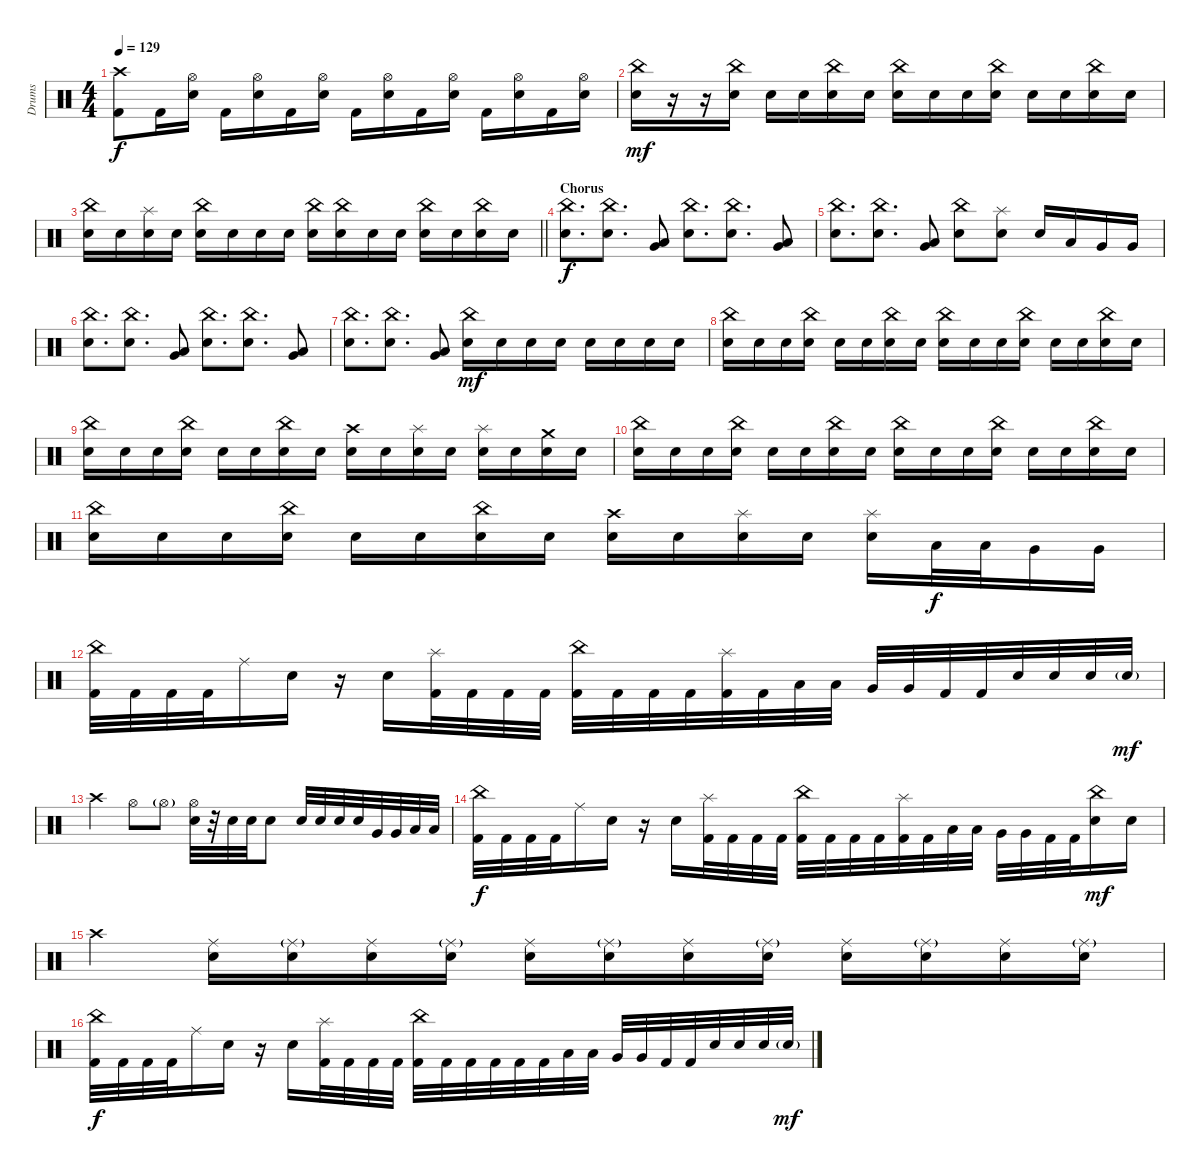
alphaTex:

\track ("Drums" "Drums") {instrument percussion}
\staff {score}
\articulation defaults
\ts (4 4)
\tempo 129
\clef neutral
\ks c
("Crash high (hit)" "Kick (hit) 2").8{dy f} "Kick (hit) 2".16 ("Hi-Hat (open)" "Snare (hit) 2").16 "Kick (hit) 2".16 ("Hi-Hat (open)" "Snare (hit) 2").16 "Kick (hit) 2".16 ("Hi-Hat (open)" "Snare (hit) 2").16 "Kick (hit) 2".16 ("Hi-Hat (open)" "Snare (hit) 2").16 "Kick (hit) 2".16 ("Hi-Hat (open)" "Snare (hit) 2").16 "Kick (hit) 2".16 ("Hi-Hat (open)" "Snare (hit) 2").16 "Kick (hit) 2".16 ("Hi-Hat (open)" "Snare (hit) 2").16 |
("China (hit)" "Snare (hit) 2").16{dy mf} r.16 r.16 ("China (hit)" "Snare (hit) 2").16 "Snare (hit) 2".16 "Snare (hit) 2".16 ("China (hit)" "Snare (hit) 2").16 "Snare (hit) 2".16 ("China (hit)" "Snare (hit) 2").16 "Snare (hit) 2".16 "Snare (hit) 2".16 ("China (hit)" "Snare (hit) 2").16 "Snare (hit) 2".16 "Snare (hit) 2".16 ("China (hit)" "Snare (hit) 2").16 "Snare (hit) 2".16 |
\barLineRight lightlight
("China (hit)" "Snare (hit) 2").16 "Snare (hit) 2".16 ("Splash (hit)" "Snare (hit) 2").16 "Snare (hit) 2".16 ("China (hit)" "Snare (hit) 2").16 "Snare (hit) 2".16 "Snare (hit) 2".16 "Snare (hit) 2".16 ("China (hit)" "Snare (hit) 2").16 ("China (hit)" "Snare (hit) 2").16 "Snare (hit) 2".16 "Snare (hit) 2".16 ("China (hit)" "Snare (hit) 2").16 "Snare (hit) 2".16 ("China (hit)" "Snare (hit) 2").16 "Snare (hit) 2".16 |
\section ("" "Chorus")
("China (hit)" "Snare (hit) 2").8{d dy f} ("China (hit)" "Snare (hit) 2").8{d} ("Very Low Tom (hit)" "Low Floor Tom (hit)").8 ("China (hit)" "Snare (hit) 2").8{d} ("China (hit)" "Snare (hit) 2").8{d} ("Very Low Tom (hit)" "Low Floor Tom (hit)").8 |
("China (hit)" "Snare (hit) 2").8{d} ("China (hit)" "Snare (hit) 2").8{d} ("Very Low Tom (hit)" "Low Floor Tom (hit)").8 ("China (hit)" "Snare (hit) 2").8 ("Splash (hit)" "Snare (hit) 2").8 "Snare (hit) 2".16 "Low Tom (hit)".16 "Very Low Tom (hit)".16 "Very Low Tom (hit)".16 |
("China (hit)" "Snare (hit) 2").8{d} ("China (hit)" "Snare (hit) 2").8{d} ("Very Low Tom (hit)" "Low Floor Tom (hit)").8 ("China (hit)" "Snare (hit) 2").8{d} ("China (hit)" "Snare (hit) 2").8{d} ("Very Low Tom (hit)" "Low Floor Tom (hit)").8 |
("China (hit)" "Snare (hit) 2").8{d} ("China (hit)" "Snare (hit) 2").8{d} ("Very Low Tom (hit)" "Low Floor Tom (hit)").8 ("China (hit)" "Snare (hit) 2").16{dy mf} "Snare (hit) 2".16 "Snare (hit) 2".16 "Snare (hit) 2".16 "Snare (hit) 2".16 "Snare (hit) 2".16 "Snare (hit) 2".16 "Snare (hit) 2".16 |
("China (hit)" "Snare (hit) 2").16 "Snare (hit) 2".16 "Snare (hit) 2".16 ("China (hit)" "Snare (hit) 2").16 "Snare (hit) 2".16 "Snare (hit) 2".16 ("China (hit)" "Snare (hit) 2").16 "Snare (hit) 2".16 ("China (hit)" "Snare (hit) 2").16 "Snare (hit) 2".16 "Snare (hit) 2".16 ("China (hit)" "Snare (hit) 2").16 "Snare (hit) 2".16 "Snare (hit) 2".16 ("China (hit)" "Snare (hit) 2").16 "Snare (hit) 2".16 |
("China (hit)" "Snare (hit) 2").16 "Snare (hit) 2".16 "Snare (hit) 2".16 ("China (hit)" "Snare (hit) 2").16 "Snare (hit) 2".16 "Snare (hit) 2".16 ("China (hit)" "Snare (hit) 2").16 "Snare (hit) 2".16 ("Crash high (hit)" "Snare (hit) 2").16 "Snare (hit) 2".16 ("Splash (hit)" "Snare (hit) 2").16 "Snare (hit) 2".16 ("Splash (hit)" "Snare (hit) 2").16 "Snare (hit) 2".16 ("Crash medium (hit)" "Snare (hit) 2").16 "Snare (hit) 2".16 |
("China (hit)" "Snare (hit) 2").16 "Snare (hit) 2".16 "Snare (hit) 2".16 ("China (hit)" "Snare (hit) 2").16 "Snare (hit) 2".16 "Snare (hit) 2".16 ("China (hit)" "Snare (hit) 2").16 "Snare (hit) 2".16 ("China (hit)" "Snare (hit) 2").16 "Snare (hit) 2".16 "Snare (hit) 2".16 ("China (hit)" "Snare (hit) 2").16 "Snare (hit) 2".16 "Snare (hit) 2".16 ("China (hit)" "Snare (hit) 2").16 "Snare (hit) 2".16 |
("China (hit)" "Snare (hit) 2").16 "Snare (hit) 2".16 "Snare (hit) 2".16 ("China (hit)" "Snare (hit) 2").16 "Snare (hit) 2".16 "Snare (hit) 2".16 ("China (hit)" "Snare (hit) 2").16 "Snare (hit) 2".16 ("Crash high (hit)" "Snare (hit) 2").16 "Snare (hit) 2".16 ("Splash (hit)" "Snare (hit) 2").16 "Snare (hit) 2".16 ("Splash (hit)" "Snare (hit) 2").16 "Low Tom (hit)".32{dy f} "Low Tom (hit)".32 "Very Low Tom (hit)".16 "Very Low Tom (hit)".16 |
("China (hit)" "Kick (hit) 2").32 "Kick (hit) 2".32 "Kick (hit) 2".32 "Kick (hit) 2".32 "Ride (middle)".16 "Snare (hit) 2".16 r.16 "Snare (hit) 2".16 ("Splash (hit)" "Kick (hit) 2").32 "Kick (hit) 2".32 "Kick (hit) 2".32 "Kick (hit) 2".32 ("China (hit)" "Kick (hit) 2").32 "Kick (hit) 2".32 "Kick (hit) 2".32 "Kick (hit) 2".32 ("Splash (hit)" "Kick (hit) 2").32 "Kick (hit) 2".32 "Low Tom (hit)".32 "Low Tom (hit)".32 "Very Low Tom (hit)".32 "Very Low Tom (hit)".32 "Kick (hit) 2".32 "Kick (hit) 2".32 "Snare (hit) 2".32 "Snare (hit) 2".32 "Snare (hit) 2".32 "Snare (hit) 2"{g}.32{dy mf} |
"Crash high (hit)".4 "Hi-Hat (open)".8 "Hi-Hat (open)"{g}.8 ("Hi-Hat (open)" "Snare (hit) 2").32 r.32 "Snare (hit) 2".32 "Snare (hit) 2".32 "Snare (hit) 2".8 "Snare (hit) 2".32 "Snare (hit) 2".32 "Snare (hit) 2".32 "Snare (hit) 2".32 "Very Low Tom (hit)".32 "Very Low Tom (hit)".32 "Low Floor Tom (hit)".32 "Low Floor Tom (hit)".32 |
("China (hit)" "Kick (hit) 2").32{dy f} "Kick (hit) 2".32 "Kick (hit) 2".32 "Kick (hit) 2".32 "Ride (middle)".16 "Snare (hit) 2".16 r.16 "Snare (hit) 2".16 ("Splash (hit)" "Kick (hit) 2").32 "Kick (hit) 2".32 "Kick (hit) 2".32 "Kick (hit) 2".32 ("China (hit)" "Kick (hit) 2").32 "Kick (hit) 2".32 "Kick (hit) 2".32 "Kick (hit) 2".32 ("Splash (hit)" "Kick (hit) 2").32 "Kick (hit) 2".32 "Low Tom (hit)".32 "Low Tom (hit)".32 "Very Low Tom (hit)".32 "Very Low Tom (hit)".32 "Kick (hit) 2".32 "Kick (hit) 2".32 ("China (hit)" "Snare (hit) 2").16{dy mf} "Snare (hit) 2".16 |
"Crash high (hit)".4 ("Ride (middle)" "Snare (hit) 2").16 ("Ride (middle)"{g} "Snare (hit) 2").16 ("Ride (middle)" "Snare (hit) 2").16 ("Ride (middle)"{g} "Snare (hit) 2").16 ("Ride (middle)" "Snare (hit) 2").16 ("Ride (middle)"{g} "Snare (hit) 2").16 ("Ride (middle)" "Snare (hit) 2").16 ("Ride (middle)"{g} "Snare (hit) 2").16 ("Ride (middle)" "Snare (hit) 2").16 ("Ride (middle)"{g} "Snare (hit) 2").16 ("Ride (middle)" "Snare (hit) 2").16 ("Ride (middle)"{g} "Snare (hit) 2").16 |
("China (hit)" "Kick (hit) 2").32{dy f} "Kick (hit) 2".32 "Kick (hit) 2".32 "Kick (hit) 2".32 "Ride (middle)".16 "Snare (hit) 2".16 r.16 "Snare (hit) 2".16 ("Splash (hit)" "Kick (hit) 2").32 "Kick (hit) 2".32 "Kick (hit) 2".32 "Kick (hit) 2".32 ("China (hit)" "Kick (hit) 2").32 "Kick (hit) 2".32 "Kick (hit) 2".32 "Kick (hit) 2".32 "Kick (hit) 2".32 "Kick (hit) 2".32 "Low Tom (hit)".32 "Low Tom (hit)".32 "Very Low Tom (hit)".32 "Very Low Tom (hit)".32 "Kick (hit) 2".32 "Kick (hit) 2".32 "Snare (hit) 2".32 "Snare (hit) 2".32 "Snare (hit) 2".32 "Snare (hit) 2"{g}.32{dy mf}
